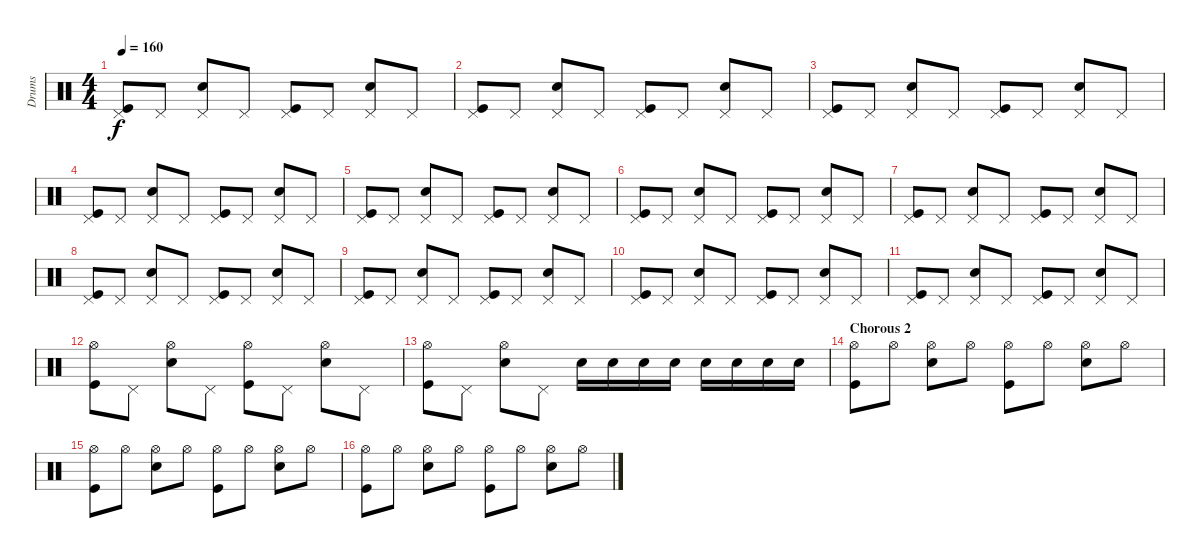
\track ("Drums" "Drums") {instrument percussion}
\staff {score}
\articulation defaults
\ts (4 4)
\tempo 160
\clef neutral
\ks c
("Pedal Hi-Hat (hit)" "Kick (hit)").8{dy f} "Pedal Hi-Hat (hit)".8 ("Pedal Hi-Hat (hit)" "Snare (hit) 2").8 "Pedal Hi-Hat (hit)".8 ("Pedal Hi-Hat (hit)" "Kick (hit)").8 "Pedal Hi-Hat (hit)".8 ("Pedal Hi-Hat (hit)" "Snare (hit) 2").8 "Pedal Hi-Hat (hit)".8 |
("Pedal Hi-Hat (hit)" "Kick (hit)").8 "Pedal Hi-Hat (hit)".8 ("Pedal Hi-Hat (hit)" "Snare (hit) 2").8 "Pedal Hi-Hat (hit)".8 ("Pedal Hi-Hat (hit)" "Kick (hit)").8 "Pedal Hi-Hat (hit)".8 ("Pedal Hi-Hat (hit)" "Snare (hit) 2").8 "Pedal Hi-Hat (hit)".8 |
("Pedal Hi-Hat (hit)" "Kick (hit)").8 "Pedal Hi-Hat (hit)".8 ("Pedal Hi-Hat (hit)" "Snare (hit) 2").8 "Pedal Hi-Hat (hit)".8 ("Pedal Hi-Hat (hit)" "Kick (hit)").8 "Pedal Hi-Hat (hit)".8 ("Pedal Hi-Hat (hit)" "Snare (hit) 2").8 "Pedal Hi-Hat (hit)".8 |
("Pedal Hi-Hat (hit)" "Kick (hit)").8 "Pedal Hi-Hat (hit)".8 ("Pedal Hi-Hat (hit)" "Snare (hit) 2").8 "Pedal Hi-Hat (hit)".8 ("Pedal Hi-Hat (hit)" "Kick (hit)").8 "Pedal Hi-Hat (hit)".8 ("Pedal Hi-Hat (hit)" "Snare (hit) 2").8 "Pedal Hi-Hat (hit)".8 |
("Pedal Hi-Hat (hit)" "Kick (hit)").8 "Pedal Hi-Hat (hit)".8 ("Pedal Hi-Hat (hit)" "Snare (hit) 2").8 "Pedal Hi-Hat (hit)".8 ("Pedal Hi-Hat (hit)" "Kick (hit)").8 "Pedal Hi-Hat (hit)".8 ("Pedal Hi-Hat (hit)" "Snare (hit) 2").8 "Pedal Hi-Hat (hit)".8 |
("Pedal Hi-Hat (hit)" "Kick (hit)").8 "Pedal Hi-Hat (hit)".8 ("Pedal Hi-Hat (hit)" "Snare (hit) 2").8 "Pedal Hi-Hat (hit)".8 ("Pedal Hi-Hat (hit)" "Kick (hit)").8 "Pedal Hi-Hat (hit)".8 ("Pedal Hi-Hat (hit)" "Snare (hit) 2").8 "Pedal Hi-Hat (hit)".8 |
("Pedal Hi-Hat (hit)" "Kick (hit)").8 "Pedal Hi-Hat (hit)".8 ("Pedal Hi-Hat (hit)" "Snare (hit) 2").8 "Pedal Hi-Hat (hit)".8 ("Pedal Hi-Hat (hit)" "Kick (hit)").8 "Pedal Hi-Hat (hit)".8 ("Pedal Hi-Hat (hit)" "Snare (hit) 2").8 "Pedal Hi-Hat (hit)".8 |
("Pedal Hi-Hat (hit)" "Kick (hit)").8 "Pedal Hi-Hat (hit)".8 ("Pedal Hi-Hat (hit)" "Snare (hit) 2").8 "Pedal Hi-Hat (hit)".8 ("Pedal Hi-Hat (hit)" "Kick (hit)").8 "Pedal Hi-Hat (hit)".8 ("Pedal Hi-Hat (hit)" "Snare (hit) 2").8 "Pedal Hi-Hat (hit)".8 |
("Pedal Hi-Hat (hit)" "Kick (hit)").8 "Pedal Hi-Hat (hit)".8 ("Pedal Hi-Hat (hit)" "Snare (hit) 2").8 "Pedal Hi-Hat (hit)".8 ("Pedal Hi-Hat (hit)" "Kick (hit)").8 "Pedal Hi-Hat (hit)".8 ("Pedal Hi-Hat (hit)" "Snare (hit) 2").8 "Pedal Hi-Hat (hit)".8 |
("Pedal Hi-Hat (hit)" "Kick (hit)").8 "Pedal Hi-Hat (hit)".8 ("Pedal Hi-Hat (hit)" "Snare (hit) 2").8 "Pedal Hi-Hat (hit)".8 ("Pedal Hi-Hat (hit)" "Kick (hit)").8 "Pedal Hi-Hat (hit)".8 ("Pedal Hi-Hat (hit)" "Snare (hit) 2").8 "Pedal Hi-Hat (hit)".8 |
("Pedal Hi-Hat (hit)" "Kick (hit)").8 "Pedal Hi-Hat (hit)".8 ("Pedal Hi-Hat (hit)" "Snare (hit) 2").8 "Pedal Hi-Hat (hit)".8 ("Pedal Hi-Hat (hit)" "Kick (hit)").8 "Pedal Hi-Hat (hit)".8 ("Pedal Hi-Hat (hit)" "Snare (hit) 2").8 "Pedal Hi-Hat (hit)".8 |
("Hi-Hat (open)" "Kick (hit)").8 "Pedal Hi-Hat (hit)".8 ("Hi-Hat (open)" "Snare (hit) 2").8 "Pedal Hi-Hat (hit)".8 ("Hi-Hat (open)" "Kick (hit)").8 "Pedal Hi-Hat (hit)".8 ("Hi-Hat (open)" "Snare (hit) 2").8 "Pedal Hi-Hat (hit)".8 |
("Hi-Hat (open)" "Kick (hit)").8 "Pedal Hi-Hat (hit)".8 ("Hi-Hat (open)" "Snare (hit) 2").8 "Pedal Hi-Hat (hit)".8 "Snare (hit) 2".16 "Snare (hit) 2".16 "Snare (hit) 2".16 "Snare (hit) 2".16 "Snare (hit) 2".16 "Snare (hit) 2".16 "Snare (hit) 2".16 "Snare (hit) 2".16 |
\section ("" "Chorous 2")
("Hi-Hat (open)" "Kick (hit)").8 "Hi-Hat (open)".8 ("Hi-Hat (open)" "Snare (hit) 2").8 "Hi-Hat (open)".8 ("Hi-Hat (open)" "Kick (hit)").8 "Hi-Hat (open)".8 ("Hi-Hat (open)" "Snare (hit) 2").8 "Hi-Hat (open)".8 |
("Hi-Hat (open)" "Kick (hit)").8 "Hi-Hat (open)".8 ("Hi-Hat (open)" "Snare (hit) 2").8 "Hi-Hat (open)".8 ("Hi-Hat (open)" "Kick (hit)").8 "Hi-Hat (open)".8 ("Hi-Hat (open)" "Snare (hit) 2").8 "Hi-Hat (open)".8 |
("Hi-Hat (open)" "Kick (hit)").8 "Hi-Hat (open)".8 ("Hi-Hat (open)" "Snare (hit) 2").8 "Hi-Hat (open)".8 ("Hi-Hat (open)" "Kick (hit)").8 "Hi-Hat (open)".8 ("Hi-Hat (open)" "Snare (hit) 2").8 "Hi-Hat (open)".8
